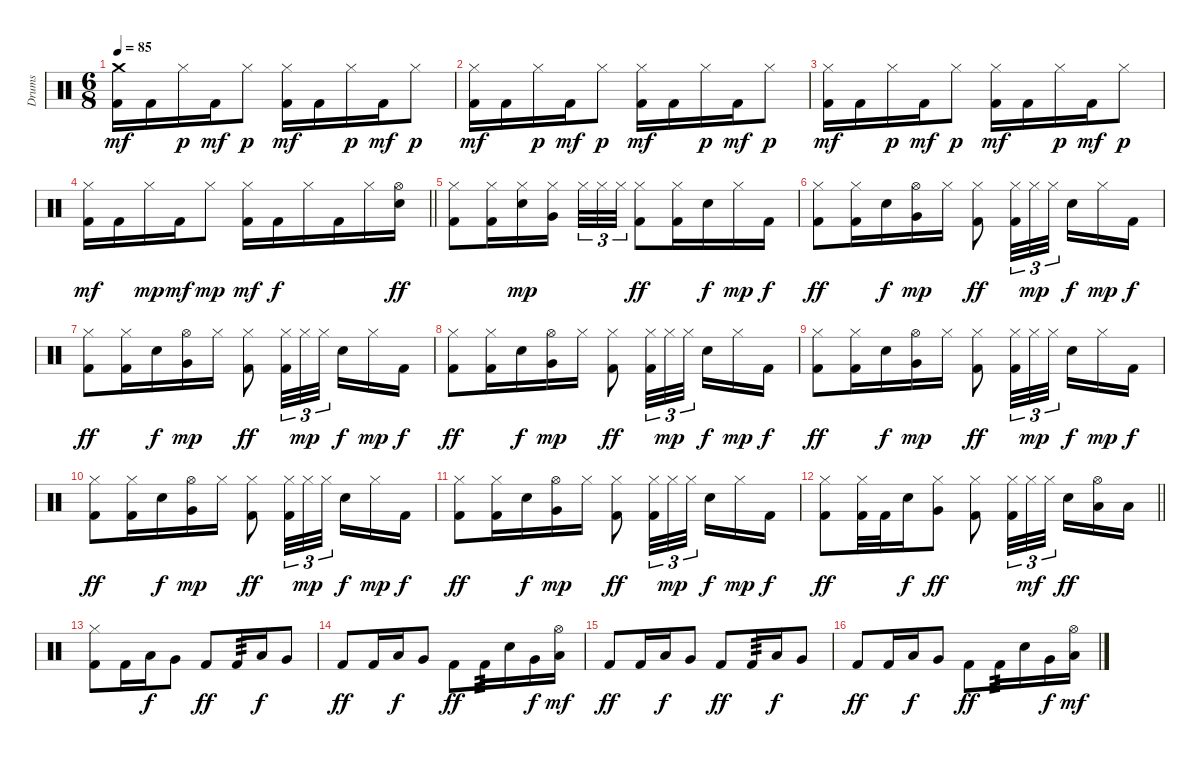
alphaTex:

\track ("Drums" "Drums") {instrument percussion}
\staff {score}
\articulation defaults
\ts (6 8)
\section ("" "")
\tempo 85
\clef neutral
\ks c
("Crash medium (hit)" "Kick (hit) 2").16{dy mf} "Kick (hit) 2".16 "Hi-Hat (closed)".16{dy p} "Kick (hit) 2".16{dy mf} "Hi-Hat (closed)".8{dy p} ("Hi-Hat (closed)" "Kick (hit) 2").16{dy mf} "Kick (hit) 2".16 "Hi-Hat (closed)".16{dy p} "Kick (hit) 2".16{dy mf} "Hi-Hat (closed)".8{dy p} |
("Hi-Hat (closed)" "Kick (hit) 2").16{dy mf} "Kick (hit) 2".16 "Hi-Hat (closed)".16{dy p} "Kick (hit) 2".16{dy mf} "Hi-Hat (closed)".8{dy p} ("Hi-Hat (closed)" "Kick (hit) 2").16{dy mf} "Kick (hit) 2".16 "Hi-Hat (closed)".16{dy p} "Kick (hit) 2".16{dy mf} "Hi-Hat (closed)".8{dy p} |
("Hi-Hat (closed)" "Kick (hit) 2").16{dy mf} "Kick (hit) 2".16 "Hi-Hat (closed)".16{dy p} "Kick (hit) 2".16{dy mf} "Hi-Hat (closed)".8{dy p} ("Hi-Hat (closed)" "Kick (hit) 2").16{dy mf} "Kick (hit) 2".16 "Hi-Hat (closed)".16{dy p} "Kick (hit) 2".16{dy mf} "Hi-Hat (closed)".8{dy p} |
\barLineRight lightlight
("Hi-Hat (closed)" "Kick (hit) 2").16{dy mf} "Kick (hit) 2".16 "Hi-Hat (closed)".16{dy mp} "Kick (hit) 2".16{dy mf} "Hi-Hat (closed)".8{dy mp} ("Hi-Hat (closed)" "Kick (hit) 2").16{dy mf} "Kick (hit) 2".16{dy f} "Hi-Hat (closed)".16 "Kick (hit) 2".16 "Hi-Hat (closed)".16 ("Hi-Hat (open)" "Snare (hit) 2").16{dy ff} |
\section ("" "")
("Hi-Hat (closed)" "Kick (hit) 2").8 ("Hi-Hat (closed)" "Kick (hit) 2").16 ("Hi-Hat (closed)" "Snare (hit) 2").16{dy mp} ("Hi-Hat (closed)" "Very Low Tom (hit)").16{beam splitsecondary} "Hi-Hat (closed)".32{tu (3 2)} "Hi-Hat (closed)".32{tu (3 2)} "Hi-Hat (closed)".32{tu (3 2)} ("Hi-Hat (closed)" "Kick (hit) 2").8{dy ff} ("Hi-Hat (closed)" "Kick (hit) 2").16 "Snare (hit) 2".16{dy f} "Hi-Hat (closed)".16{dy mp} "Kick (hit) 2".16{dy f} |
("Hi-Hat (closed)" "Kick (hit) 2").8{dy ff} ("Hi-Hat (closed)" "Kick (hit) 2").16 "Snare (hit) 2".16{dy f} ("Hi-Hat (open)" "Very Low Tom (hit)").16{dy mp} "Hi-Hat (closed)".16 ("Hi-Hat (closed)" "Kick (hit) 2").8{dy ff} ("Hi-Hat (closed)" "Kick (hit) 2").32{tu (3 2)} "Hi-Hat (closed)".32{tu (3 2) dy mp} "Hi-Hat (closed)".32{tu (3 2) beam splitsecondary} "Snare (hit) 2".16{dy f} "Hi-Hat (closed)".16{dy mp} "Kick (hit) 2".16{dy f} |
("Hi-Hat (closed)" "Kick (hit) 2").8{dy ff} ("Hi-Hat (closed)" "Kick (hit) 2").16 "Snare (hit) 2".16{dy f} ("Hi-Hat (open)" "Very Low Tom (hit)").16{dy mp} "Hi-Hat (closed)".16 ("Hi-Hat (closed)" "Kick (hit) 2").8{dy ff} ("Hi-Hat (closed)" "Kick (hit) 2").32{tu (3 2)} "Hi-Hat (closed)".32{tu (3 2) dy mp} "Hi-Hat (closed)".32{tu (3 2) beam splitsecondary} "Snare (hit) 2".16{dy f} "Hi-Hat (closed)".16{dy mp} "Kick (hit) 2".16{dy f} |
("Hi-Hat (closed)" "Kick (hit) 2").8{dy ff} ("Hi-Hat (closed)" "Kick (hit) 2").16 "Snare (hit) 2".16{dy f} ("Hi-Hat (open)" "Very Low Tom (hit)").16{dy mp} "Hi-Hat (closed)".16 ("Hi-Hat (closed)" "Kick (hit) 2").8{dy ff} ("Hi-Hat (closed)" "Kick (hit) 2").32{tu (3 2)} "Hi-Hat (closed)".32{tu (3 2) dy mp} "Hi-Hat (closed)".32{tu (3 2) beam splitsecondary} "Snare (hit) 2".16{dy f} "Hi-Hat (closed)".16{dy mp} "Kick (hit) 2".16{dy f} |
("Hi-Hat (closed)" "Kick (hit) 2").8{dy ff} ("Hi-Hat (closed)" "Kick (hit) 2").16 "Snare (hit) 2".16{dy f} ("Hi-Hat (open)" "Very Low Tom (hit)").16{dy mp} "Hi-Hat (closed)".16 ("Hi-Hat (closed)" "Kick (hit) 2").8{dy ff} ("Hi-Hat (closed)" "Kick (hit) 2").32{tu (3 2)} "Hi-Hat (closed)".32{tu (3 2) dy mp} "Hi-Hat (closed)".32{tu (3 2) beam splitsecondary} "Snare (hit) 2".16{dy f} "Hi-Hat (closed)".16{dy mp} "Kick (hit) 2".16{dy f} |
("Hi-Hat (closed)" "Kick (hit) 2").8{dy ff} ("Hi-Hat (closed)" "Kick (hit) 2").16 "Snare (hit) 2".16{dy f} ("Hi-Hat (open)" "Very Low Tom (hit)").16{dy mp} "Hi-Hat (closed)".16 ("Hi-Hat (closed)" "Kick (hit) 2").8{dy ff} ("Hi-Hat (closed)" "Kick (hit) 2").32{tu (3 2)} "Hi-Hat (closed)".32{tu (3 2) dy mp} "Hi-Hat (closed)".32{tu (3 2) beam splitsecondary} "Snare (hit) 2".16{dy f} "Hi-Hat (closed)".16{dy mp} "Kick (hit) 2".16{dy f} |
("Hi-Hat (closed)" "Kick (hit) 2").8{dy ff} ("Hi-Hat (closed)" "Kick (hit) 2").16 "Snare (hit) 2".16{dy f} ("Hi-Hat (open)" "Very Low Tom (hit)").16{dy mp} "Hi-Hat (closed)".16 ("Hi-Hat (closed)" "Kick (hit) 2").8{dy ff} ("Hi-Hat (closed)" "Kick (hit) 2").32{tu (3 2)} "Hi-Hat (closed)".32{tu (3 2) dy mp} "Hi-Hat (closed)".32{tu (3 2) beam splitsecondary} "Snare (hit) 2".16{dy f} "Hi-Hat (closed)".16{dy mp} "Kick (hit) 2".16{dy f} |
\barLineRight lightlight
("Hi-Hat (closed)" "Kick (hit) 2").8{dy ff} ("Hi-Hat (closed)" "Kick (hit) 2").32 "Kick (hit) 2".32 "Snare (hit) 2".16{dy f} ("Hi-Hat (closed)" "Very Low Tom (hit)").8{dy ff} ("Hi-Hat (closed)" "Kick (hit) 2").8 ("Hi-Hat (closed)" "Kick (hit) 2").32{tu (3 2)} "Hi-Hat (closed)".32{tu (3 2) dy mf} "Hi-Hat (closed)".32{tu (3 2) beam splitsecondary} "Snare (hit) 2".16{dy ff} ("Hi-Hat (open)" "Low Tom (hit)").16 "Low Tom (hit)".16 |
\section ("" "")
("Hi-Hat (closed)" "Kick (hit) 2").8 "Kick (hit) 2".16 "Low Tom (hit)".16{dy f} "Very Low Tom (hit)".8 "Kick (hit) 2".8{dy ff} "Kick (hit) 2".16{tp 3} "Low Tom (hit)".16{dy f} "Very Low Tom (hit)".8 |
"Kick (hit) 2".8{dy ff} "Kick (hit) 2".16 "Low Tom (hit)".16{dy f} "Very Low Tom (hit)".8 "Kick (hit) 2".8{dy ff} "Kick (hit) 2".16{tp 3} "Snare (hit) 2".16 "Very Low Tom (hit)".16{dy f} ("Hi-Hat (open)" "Low Floor Tom (hit)").16{dy mf} |
"Kick (hit) 2".8{dy ff} "Kick (hit) 2".16 "Low Tom (hit)".16{dy f} "Very Low Tom (hit)".8 "Kick (hit) 2".8{dy ff} "Kick (hit) 2".16{tp 3} "Low Tom (hit)".16{dy f} "Very Low Tom (hit)".8 |
"Kick (hit) 2".8{dy ff} "Kick (hit) 2".16 "Low Tom (hit)".16{dy f} "Very Low Tom (hit)".8 "Kick (hit) 2".8{dy ff} "Kick (hit) 2".16{tp 3} "Snare (hit) 2".16 "Very Low Tom (hit)".16{dy f} ("Hi-Hat (open)" "Low Floor Tom (hit)").16{dy mf}
